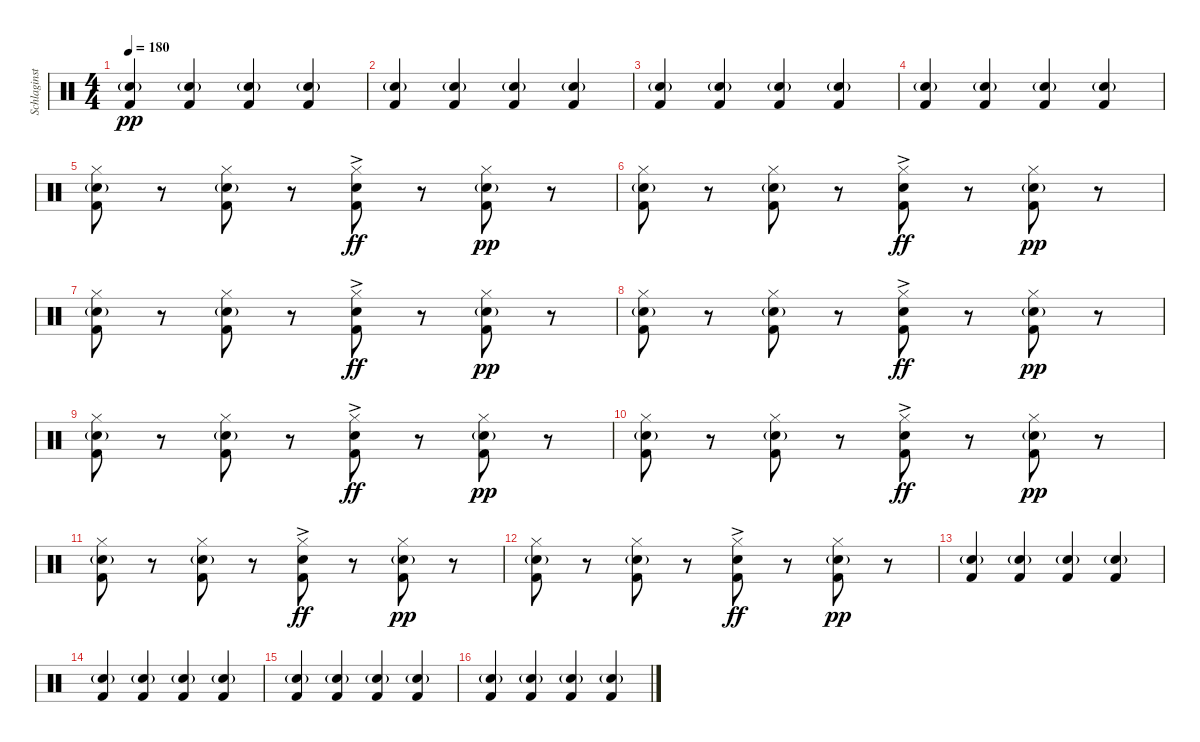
\track ("Schlaginstrumente - Auswahl" "Schlaginst") {instrument percussion}
\staff {score}
\articulation defaults
\ts (4 4)
\tempo 180
\clef neutral
\ks c
("Electric Snare (hit)"{g} "Kick (hit) 2").4{dy pp} ("Electric Snare (hit)"{g} "Kick (hit) 2").4 ("Electric Snare (hit)"{g} "Kick (hit) 2").4 ("Electric Snare (hit)"{g} "Kick (hit) 2").4 |
("Electric Snare (hit)"{g} "Kick (hit) 2").4 ("Electric Snare (hit)"{g} "Kick (hit) 2").4 ("Electric Snare (hit)"{g} "Kick (hit) 2").4 ("Electric Snare (hit)"{g} "Kick (hit) 2").4 |
("Electric Snare (hit)"{g} "Kick (hit) 2").4 ("Electric Snare (hit)"{g} "Kick (hit) 2").4 ("Electric Snare (hit)"{g} "Kick (hit) 2").4 ("Electric Snare (hit)"{g} "Kick (hit) 2").4 |
("Electric Snare (hit)"{g} "Kick (hit) 2").4 ("Electric Snare (hit)"{g} "Kick (hit) 2").4 ("Electric Snare (hit)"{g} "Kick (hit) 2").4 ("Electric Snare (hit)"{g} "Kick (hit) 2").4 |
("Hi-Hat (closed)" "Electric Snare (hit)"{g} "Kick (hit) 2").8 r.8 ("Hi-Hat (closed)" "Electric Snare (hit)"{g} "Kick (hit) 2").8 r.8 ("Hi-Hat (closed)" "Electric Snare (hit)"{ac} "Kick (hit) 2").8{dy ff} r.8 ("Hi-Hat (closed)" "Electric Snare (hit)"{g} "Kick (hit) 2").8{dy pp} r.8 |
("Hi-Hat (closed)" "Electric Snare (hit)"{g} "Kick (hit) 2").8 r.8 ("Hi-Hat (closed)" "Electric Snare (hit)"{g} "Kick (hit) 2").8 r.8 ("Hi-Hat (closed)" "Electric Snare (hit)"{ac} "Kick (hit) 2").8{dy ff} r.8 ("Hi-Hat (closed)" "Electric Snare (hit)"{g} "Kick (hit) 2").8{dy pp} r.8 |
("Hi-Hat (closed)" "Electric Snare (hit)"{g} "Kick (hit) 2").8 r.8 ("Hi-Hat (closed)" "Electric Snare (hit)"{g} "Kick (hit) 2").8 r.8 ("Hi-Hat (closed)" "Electric Snare (hit)"{ac} "Kick (hit) 2").8{dy ff} r.8 ("Hi-Hat (closed)" "Electric Snare (hit)"{g} "Kick (hit) 2").8{dy pp} r.8 |
("Hi-Hat (closed)" "Electric Snare (hit)"{g} "Kick (hit) 2").8 r.8 ("Hi-Hat (closed)" "Electric Snare (hit)"{g} "Kick (hit) 2").8 r.8 ("Hi-Hat (closed)" "Electric Snare (hit)"{ac} "Kick (hit) 2").8{dy ff} r.8 ("Hi-Hat (closed)" "Electric Snare (hit)"{g} "Kick (hit) 2").8{dy pp} r.8 |
("Hi-Hat (closed)" "Electric Snare (hit)"{g} "Kick (hit) 2").8 r.8 ("Hi-Hat (closed)" "Electric Snare (hit)"{g} "Kick (hit) 2").8 r.8 ("Hi-Hat (closed)" "Electric Snare (hit)"{ac} "Kick (hit) 2").8{dy ff} r.8 ("Hi-Hat (closed)" "Electric Snare (hit)"{g} "Kick (hit) 2").8{dy pp} r.8 |
("Hi-Hat (closed)" "Electric Snare (hit)"{g} "Kick (hit) 2").8 r.8 ("Hi-Hat (closed)" "Electric Snare (hit)"{g} "Kick (hit) 2").8 r.8 ("Hi-Hat (closed)" "Electric Snare (hit)"{ac} "Kick (hit) 2").8{dy ff} r.8 ("Hi-Hat (closed)" "Electric Snare (hit)"{g} "Kick (hit) 2").8{dy pp} r.8 |
("Hi-Hat (closed)" "Electric Snare (hit)"{g} "Kick (hit) 2").8 r.8 ("Hi-Hat (closed)" "Electric Snare (hit)"{g} "Kick (hit) 2").8 r.8 ("Hi-Hat (closed)" "Electric Snare (hit)"{ac} "Kick (hit) 2").8{dy ff} r.8 ("Hi-Hat (closed)" "Electric Snare (hit)"{g} "Kick (hit) 2").8{dy pp} r.8 |
("Hi-Hat (closed)" "Electric Snare (hit)"{g} "Kick (hit) 2").8 r.8 ("Hi-Hat (closed)" "Electric Snare (hit)"{g} "Kick (hit) 2").8 r.8 ("Hi-Hat (closed)" "Electric Snare (hit)"{ac} "Kick (hit) 2").8{dy ff} r.8 ("Hi-Hat (closed)" "Electric Snare (hit)"{g} "Kick (hit) 2").8{dy pp} r.8 |
("Electric Snare (hit)"{g} "Kick (hit) 2").4 ("Electric Snare (hit)"{g} "Kick (hit) 2").4 ("Electric Snare (hit)"{g} "Kick (hit) 2").4 ("Electric Snare (hit)"{g} "Kick (hit) 2").4 |
("Electric Snare (hit)"{g} "Kick (hit) 2").4 ("Electric Snare (hit)"{g} "Kick (hit) 2").4 ("Electric Snare (hit)"{g} "Kick (hit) 2").4 ("Electric Snare (hit)"{g} "Kick (hit) 2").4 |
("Electric Snare (hit)"{g} "Kick (hit) 2").4 ("Electric Snare (hit)"{g} "Kick (hit) 2").4 ("Electric Snare (hit)"{g} "Kick (hit) 2").4 ("Electric Snare (hit)"{g} "Kick (hit) 2").4 |
("Electric Snare (hit)"{g} "Kick (hit) 2").4 ("Electric Snare (hit)"{g} "Kick (hit) 2").4 ("Electric Snare (hit)"{g} "Kick (hit) 2").4 ("Electric Snare (hit)"{g} "Kick (hit) 2").4
